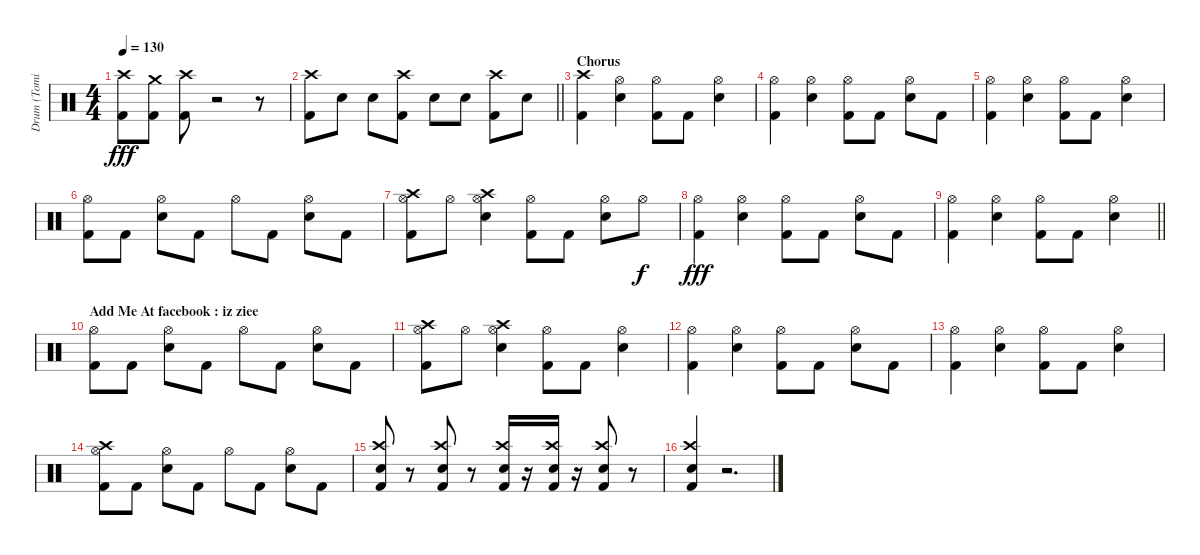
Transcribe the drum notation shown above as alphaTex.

\track ("Drum (Tomi)" "Drum (Tomi") {instrument percussion}
\staff {score}
\articulation defaults
\ts (4 4)
\tempo 130
\clef neutral
\ks c
("Kick (hit) 2" "Crash high (hit)").8{dy fff} ("Crash medium (hit)" "Kick (hit) 2").8 ("Crash high (hit)" "Kick (hit) 2").8 r.2 r.8 |
\barLineRight lightlight
("Crash high (hit)" "Kick (hit) 2").8 "Electric Snare (hit)".8 "Electric Snare (hit)".8 ("Crash high (hit)" "Kick (hit) 2").8 "Electric Snare (hit)".8 "Electric Snare (hit)".8 ("Crash high (hit)" "Kick (hit) 2").8 "Electric Snare (hit)".8 |
\section ("" "Chorus")
("Crash high (hit)" "Kick (hit) 2").4 ("Hi-Hat (open)" "Electric Snare (hit)").4 ("Hi-Hat (open)" "Kick (hit) 2").8 "Kick (hit) 2".8 ("Hi-Hat (open)" "Electric Snare (hit)").4 |
("Hi-Hat (open)" "Kick (hit) 2").4 ("Hi-Hat (open)" "Electric Snare (hit)").4 ("Hi-Hat (open)" "Kick (hit) 2").8 "Kick (hit) 2".8 ("Hi-Hat (open)" "Electric Snare (hit)").8 "Kick (hit) 2".8 |
("Hi-Hat (open)" "Kick (hit) 2").4 ("Hi-Hat (open)" "Electric Snare (hit)").4 ("Hi-Hat (open)" "Kick (hit) 2").8 "Kick (hit) 2".8 ("Hi-Hat (open)" "Electric Snare (hit)").4 |
("Kick (hit) 2" "Hi-Hat (open)").8 "Kick (hit) 2".8 ("Hi-Hat (open)" "Electric Snare (hit)").8 "Kick (hit) 2".8 "Hi-Hat (open)".8 "Kick (hit) 2".8 ("Hi-Hat (open)" "Electric Snare (hit)").8 "Kick (hit) 2".8 |
("Hi-Hat (open)" "Crash high (hit)" "Kick (hit) 2").8 "Hi-Hat (open)".8 ("Hi-Hat (open)" "Crash high (hit)" "Electric Snare (hit)").4 ("Kick (hit) 2" "Hi-Hat (open)").8 "Kick (hit) 2".8 ("Hi-Hat (open)" "Electric Snare (hit)").8 "Hi-Hat (open)".8{dy f} |
("Hi-Hat (open)" "Kick (hit) 2").4{dy fff} ("Hi-Hat (open)" "Electric Snare (hit)").4 ("Hi-Hat (open)" "Kick (hit) 2").8 "Kick (hit) 2".8 ("Hi-Hat (open)" "Electric Snare (hit)").8 "Kick (hit) 2".8 |
\barLineRight lightlight
("Hi-Hat (open)" "Kick (hit) 2").4 ("Hi-Hat (open)" "Electric Snare (hit)").4 ("Hi-Hat (open)" "Kick (hit) 2").8 "Kick (hit) 2".8 ("Hi-Hat (open)" "Electric Snare (hit)").4 |
\section ("" "Add Me At facebook : iz ziee")
("Hi-Hat (open)" "Kick (hit) 2").8 "Kick (hit) 2".8 ("Hi-Hat (open)" "Electric Snare (hit)").8 "Kick (hit) 2".8 "Hi-Hat (open)".8 "Kick (hit) 2".8 ("Hi-Hat (open)" "Electric Snare (hit)").8 "Kick (hit) 2".8 |
("Hi-Hat (open)" "Crash high (hit)" "Kick (hit) 2").8 "Hi-Hat (open)".8 ("Hi-Hat (open)" "Crash high (hit)" "Electric Snare (hit)").4 ("Hi-Hat (open)" "Kick (hit) 2").8 "Kick (hit) 2".8 ("Hi-Hat (open)" "Electric Snare (hit)").4 |
("Hi-Hat (open)" "Kick (hit) 2").4 ("Hi-Hat (open)" "Electric Snare (hit)").4 ("Hi-Hat (open)" "Kick (hit) 2").8 "Kick (hit) 2".8 ("Hi-Hat (open)" "Electric Snare (hit)").8 "Kick (hit) 2".8 |
("Hi-Hat (open)" "Kick (hit) 2").4 ("Hi-Hat (open)" "Electric Snare (hit)").4 ("Hi-Hat (open)" "Kick (hit) 2").8 "Kick (hit) 2".8 ("Hi-Hat (open)" "Electric Snare (hit)").4 |
("Crash high (hit)" "Hi-Hat (open)" "Kick (hit) 2").8 "Kick (hit) 2".8 ("Hi-Hat (open)" "Electric Snare (hit)").8 "Kick (hit) 2".8 "Hi-Hat (open)".8 "Kick (hit) 2".8 ("Hi-Hat (open)" "Electric Snare (hit)").8 "Kick (hit) 2".8 |
("Crash high (hit)" "Kick (hit) 2" "Electric Snare (hit)").8 r.8 ("Crash high (hit)" "Kick (hit) 2" "Electric Snare (hit)").8 r.8 ("Crash high (hit)" "Kick (hit) 2" "Electric Snare (hit)").16 r.16 ("Crash high (hit)" "Kick (hit) 2" "Electric Snare (hit)").16 r.16 ("Crash high (hit)" "Kick (hit) 2" "Electric Snare (hit)").8 r.8 |
("Crash high (hit)" "Kick (hit) 2" "Electric Snare (hit)").4 r.2{d}
